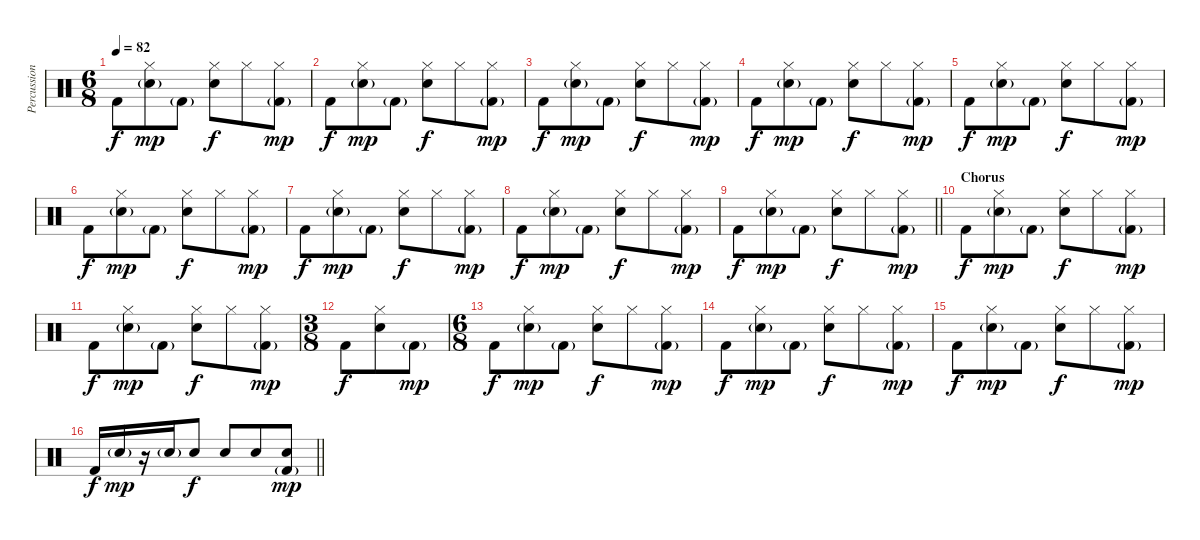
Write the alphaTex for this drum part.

\track ("Percussion" "Percussion") {instrument percussion}
\staff {score}
\articulation defaults
\ts (6 8)
\tempo 82
\clef neutral
\ks c "Kick (hit) 2".8{dy f}
("Hi-Hat (closed)" "Snare (hit) 2"{g}).8{dy mp} "Kick (hit) 2"{g}.8 ("Hi-Hat (closed)" "Snare (hit) 2").8{dy f} "Hi-Hat (closed)".8 ("Hi-Hat (closed)" "Kick (hit) 2"{g}).8{dy mp} |
"Kick (hit) 2".8{dy f} ("Hi-Hat (closed)" "Snare (hit) 2"{g}).8{dy mp} "Kick (hit) 2"{g}.8 ("Hi-Hat (closed)" "Snare (hit) 2").8{dy f} "Hi-Hat (closed)".8 ("Hi-Hat (closed)" "Kick (hit) 2"{g}).8{dy mp} |
"Kick (hit) 2".8{dy f} ("Hi-Hat (closed)" "Snare (hit) 2"{g}).8{dy mp} "Kick (hit) 2"{g}.8 ("Hi-Hat (closed)" "Snare (hit) 2").8{dy f} "Hi-Hat (closed)".8 ("Hi-Hat (closed)" "Kick (hit) 2"{g}).8{dy mp} |
"Kick (hit) 2".8{dy f} ("Hi-Hat (closed)" "Snare (hit) 2"{g}).8{dy mp} "Kick (hit) 2"{g}.8 ("Hi-Hat (closed)" "Snare (hit) 2").8{dy f} "Hi-Hat (closed)".8 ("Hi-Hat (closed)" "Kick (hit) 2"{g}).8{dy mp} |
"Kick (hit) 2".8{dy f} ("Hi-Hat (closed)" "Snare (hit) 2"{g}).8{dy mp} "Kick (hit) 2"{g}.8 ("Hi-Hat (closed)" "Snare (hit) 2").8{dy f} "Hi-Hat (closed)".8 ("Hi-Hat (closed)" "Kick (hit) 2"{g}).8{dy mp} |
"Kick (hit) 2".8{dy f} ("Hi-Hat (closed)" "Snare (hit) 2"{g}).8{dy mp} "Kick (hit) 2"{g}.8 ("Hi-Hat (closed)" "Snare (hit) 2").8{dy f} "Hi-Hat (closed)".8 ("Hi-Hat (closed)" "Kick (hit) 2"{g}).8{dy mp} |
"Kick (hit) 2".8{dy f} ("Hi-Hat (closed)" "Snare (hit) 2"{g}).8{dy mp} "Kick (hit) 2"{g}.8 ("Hi-Hat (closed)" "Snare (hit) 2").8{dy f} "Hi-Hat (closed)".8 ("Hi-Hat (closed)" "Kick (hit) 2"{g}).8{dy mp} |
"Kick (hit) 2".8{dy f} ("Hi-Hat (closed)" "Snare (hit) 2"{g}).8{dy mp} "Kick (hit) 2"{g}.8 ("Hi-Hat (closed)" "Snare (hit) 2").8{dy f} "Hi-Hat (closed)".8 ("Hi-Hat (closed)" "Kick (hit) 2"{g}).8{dy mp} |
\barLineRight lightlight "Kick (hit) 2".8{dy f}
("Hi-Hat (closed)" "Snare (hit) 2"{g}).8{dy mp} "Kick (hit) 2"{g}.8 ("Hi-Hat (closed)" "Snare (hit) 2").8{dy f} "Hi-Hat (closed)".8 ("Hi-Hat (closed)" "Kick (hit) 2"{g}).8{dy mp} |
\section ("" "Chorus")
"Kick (hit) 2".8{dy f} ("Hi-Hat (closed)" "Snare (hit) 2"{g}).8{dy mp} "Kick (hit) 2"{g}.8 ("Hi-Hat (closed)" "Snare (hit) 2").8{dy f} "Hi-Hat (closed)".8 ("Hi-Hat (closed)" "Kick (hit) 2"{g}).8{dy mp} |
"Kick (hit) 2".8{dy f} ("Hi-Hat (closed)" "Snare (hit) 2"{g}).8{dy mp} "Kick (hit) 2"{g}.8 ("Hi-Hat (closed)" "Snare (hit) 2").8{dy f} "Hi-Hat (closed)".8 ("Hi-Hat (closed)" "Kick (hit) 2"{g}).8{dy mp} |
\ts (3 8)
"Kick (hit) 2".8{dy f} ("Hi-Hat (closed)" "Snare (hit) 2").8 "Kick (hit) 2"{g}.8{dy mp} |
\ts (6 8)
"Kick (hit) 2".8{dy f} ("Hi-Hat (closed)" "Snare (hit) 2"{g}).8{dy mp} "Kick (hit) 2"{g}.8 ("Hi-Hat (closed)" "Snare (hit) 2").8{dy f} "Hi-Hat (closed)".8 ("Hi-Hat (closed)" "Kick (hit) 2"{g}).8{dy mp} |
"Kick (hit) 2".8{dy f} ("Hi-Hat (closed)" "Snare (hit) 2"{g}).8{dy mp} "Kick (hit) 2"{g}.8 ("Hi-Hat (closed)" "Snare (hit) 2").8{dy f} "Hi-Hat (closed)".8 ("Hi-Hat (closed)" "Kick (hit) 2"{g}).8{dy mp} |
"Kick (hit) 2".8{dy f} ("Hi-Hat (closed)" "Snare (hit) 2"{g}).8{dy mp} "Kick (hit) 2"{g}.8 ("Hi-Hat (closed)" "Snare (hit) 2").8{dy f} "Hi-Hat (closed)".8 ("Hi-Hat (closed)" "Kick (hit) 2"{g}).8{dy mp} |
\barLineRight lightlight "Kick (hit) 2".16{dy f} "Snare (hit) 2"{g}.16{dy mp}
r.16 "Snare (hit) 2"{g}.16 "Snare (hit) 2".8{dy f} "Snare (hit) 2".8 "Snare (hit) 2".8 ("Snare (hit) 2" "Kick (hit) 2"{g}).8{dy mp}
